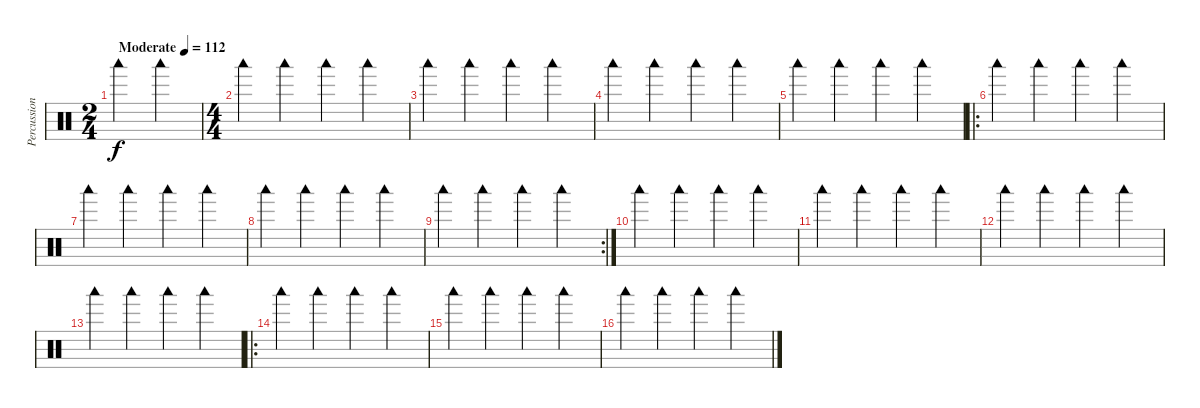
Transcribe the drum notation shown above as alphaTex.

\track ("Percussion" "Percussion") {instrument percussion}
\staff {score}
\articulation defaults
\ts (2 4)
\tempo (112 "Moderate")
\clef neutral
\ks c "Woodblock low (hit)".4{dy f} "Woodblock low (hit)".4
|
\ts (4 4)
"Woodblock low (hit)".4 "Woodblock low (hit)".4 "Woodblock low (hit)".4 "Woodblock low (hit)".4 |
"Woodblock low (hit)".4 "Woodblock low (hit)".4 "Woodblock low (hit)".4 "Woodblock low (hit)".4 |
"Woodblock low (hit)".4 "Woodblock low (hit)".4 "Woodblock low (hit)".4 "Woodblock low (hit)".4 |
"Woodblock low (hit)".4 "Woodblock low (hit)".4 "Woodblock low (hit)".4 "Woodblock low (hit)".4 |
\ro "Woodblock low (hit)".4 "Woodblock low (hit)".4 "Woodblock low (hit)".4 "Woodblock low (hit)".4
|
"Woodblock low (hit)".4 "Woodblock low (hit)".4 "Woodblock low (hit)".4 "Woodblock low (hit)".4 |
"Woodblock low (hit)".4 "Woodblock low (hit)".4 "Woodblock low (hit)".4 "Woodblock low (hit)".4 |
\rc 2 "Woodblock low (hit)".4 "Woodblock low (hit)".4 "Woodblock low (hit)".4 "Woodblock low (hit)".4
|
"Woodblock low (hit)".4 "Woodblock low (hit)".4 "Woodblock low (hit)".4 "Woodblock low (hit)".4 |
"Woodblock low (hit)".4 "Woodblock low (hit)".4 "Woodblock low (hit)".4 "Woodblock low (hit)".4 |
"Woodblock low (hit)".4 "Woodblock low (hit)".4 "Woodblock low (hit)".4 "Woodblock low (hit)".4 |
"Woodblock low (hit)".4 "Woodblock low (hit)".4 "Woodblock low (hit)".4 "Woodblock low (hit)".4 |
\ro "Woodblock low (hit)".4 "Woodblock low (hit)".4 "Woodblock low (hit)".4 "Woodblock low (hit)".4
|
"Woodblock low (hit)".4 "Woodblock low (hit)".4 "Woodblock low (hit)".4 "Woodblock low (hit)".4 |
"Woodblock low (hit)".4 "Woodblock low (hit)".4 "Woodblock low (hit)".4 "Woodblock low (hit)".4
